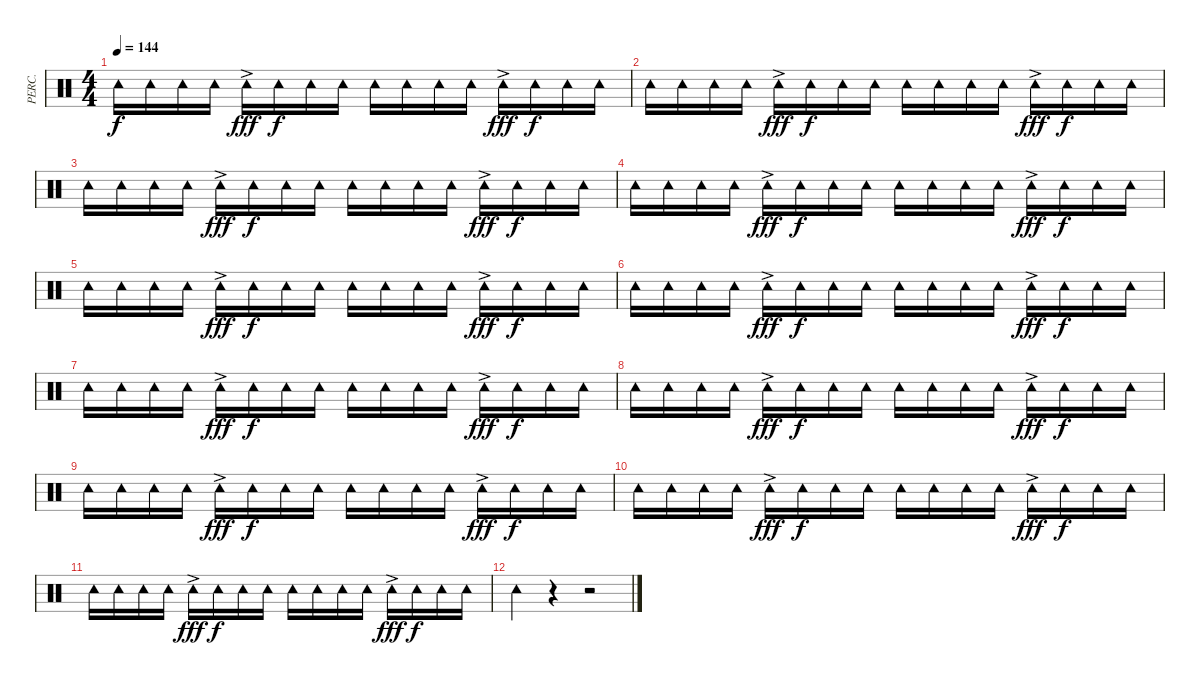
\track ("PERC." "PERC.") {instrument percussion}
\staff {score}
\articulation defaults
\ts (4 4)
\tempo 144
\clef neutral
\ks c "Tambourine (hit)".16{dy f} "Tambourine (hit)".16 "Tambourine (hit)".16 "Tambourine (hit)".16 "Tambourine (hit)"{ac}.16{dy fff} "Tambourine (hit)".16{dy f} "Tambourine (hit)".16 "Tambourine (hit)".16 "Tambourine (hit)".16 "Tambourine (hit)".16 "Tambourine (hit)".16 "Tambourine (hit)".16 "Tambourine (hit)"{ac}.16{dy fff} "Tambourine (hit)".16{dy f} "Tambourine (hit)".16 "Tambourine (hit)".16
|
"Tambourine (hit)".16 "Tambourine (hit)".16 "Tambourine (hit)".16 "Tambourine (hit)".16 "Tambourine (hit)"{ac}.16{dy fff} "Tambourine (hit)".16{dy f} "Tambourine (hit)".16 "Tambourine (hit)".16 "Tambourine (hit)".16 "Tambourine (hit)".16 "Tambourine (hit)".16 "Tambourine (hit)".16 "Tambourine (hit)"{ac}.16{dy fff} "Tambourine (hit)".16{dy f} "Tambourine (hit)".16 "Tambourine (hit)".16 |
"Tambourine (hit)".16 "Tambourine (hit)".16 "Tambourine (hit)".16 "Tambourine (hit)".16 "Tambourine (hit)"{ac}.16{dy fff} "Tambourine (hit)".16{dy f} "Tambourine (hit)".16 "Tambourine (hit)".16 "Tambourine (hit)".16 "Tambourine (hit)".16 "Tambourine (hit)".16 "Tambourine (hit)".16 "Tambourine (hit)"{ac}.16{dy fff} "Tambourine (hit)".16{dy f} "Tambourine (hit)".16 "Tambourine (hit)".16 |
"Tambourine (hit)".16 "Tambourine (hit)".16 "Tambourine (hit)".16 "Tambourine (hit)".16 "Tambourine (hit)"{ac}.16{dy fff} "Tambourine (hit)".16{dy f} "Tambourine (hit)".16 "Tambourine (hit)".16 "Tambourine (hit)".16 "Tambourine (hit)".16 "Tambourine (hit)".16 "Tambourine (hit)".16 "Tambourine (hit)"{ac}.16{dy fff} "Tambourine (hit)".16{dy f} "Tambourine (hit)".16 "Tambourine (hit)".16 |
"Tambourine (hit)".16 "Tambourine (hit)".16 "Tambourine (hit)".16 "Tambourine (hit)".16 "Tambourine (hit)"{ac}.16{dy fff} "Tambourine (hit)".16{dy f} "Tambourine (hit)".16 "Tambourine (hit)".16 "Tambourine (hit)".16 "Tambourine (hit)".16 "Tambourine (hit)".16 "Tambourine (hit)".16 "Tambourine (hit)"{ac}.16{dy fff} "Tambourine (hit)".16{dy f} "Tambourine (hit)".16 "Tambourine (hit)".16 |
"Tambourine (hit)".16 "Tambourine (hit)".16 "Tambourine (hit)".16 "Tambourine (hit)".16 "Tambourine (hit)"{ac}.16{dy fff} "Tambourine (hit)".16{dy f} "Tambourine (hit)".16 "Tambourine (hit)".16 "Tambourine (hit)".16 "Tambourine (hit)".16 "Tambourine (hit)".16 "Tambourine (hit)".16 "Tambourine (hit)"{ac}.16{dy fff} "Tambourine (hit)".16{dy f} "Tambourine (hit)".16 "Tambourine (hit)".16 |
"Tambourine (hit)".16 "Tambourine (hit)".16 "Tambourine (hit)".16 "Tambourine (hit)".16 "Tambourine (hit)"{ac}.16{dy fff} "Tambourine (hit)".16{dy f} "Tambourine (hit)".16 "Tambourine (hit)".16 "Tambourine (hit)".16 "Tambourine (hit)".16 "Tambourine (hit)".16 "Tambourine (hit)".16 "Tambourine (hit)"{ac}.16{dy fff} "Tambourine (hit)".16{dy f} "Tambourine (hit)".16 "Tambourine (hit)".16 |
"Tambourine (hit)".16 "Tambourine (hit)".16 "Tambourine (hit)".16 "Tambourine (hit)".16 "Tambourine (hit)"{ac}.16{dy fff} "Tambourine (hit)".16{dy f} "Tambourine (hit)".16 "Tambourine (hit)".16 "Tambourine (hit)".16 "Tambourine (hit)".16 "Tambourine (hit)".16 "Tambourine (hit)".16 "Tambourine (hit)"{ac}.16{dy fff} "Tambourine (hit)".16{dy f} "Tambourine (hit)".16 "Tambourine (hit)".16 |
"Tambourine (hit)".16 "Tambourine (hit)".16 "Tambourine (hit)".16 "Tambourine (hit)".16 "Tambourine (hit)"{ac}.16{dy fff} "Tambourine (hit)".16{dy f} "Tambourine (hit)".16 "Tambourine (hit)".16 "Tambourine (hit)".16 "Tambourine (hit)".16 "Tambourine (hit)".16 "Tambourine (hit)".16 "Tambourine (hit)"{ac}.16{dy fff} "Tambourine (hit)".16{dy f} "Tambourine (hit)".16 "Tambourine (hit)".16 |
"Tambourine (hit)".16 "Tambourine (hit)".16 "Tambourine (hit)".16 "Tambourine (hit)".16 "Tambourine (hit)"{ac}.16{dy fff} "Tambourine (hit)".16{dy f} "Tambourine (hit)".16 "Tambourine (hit)".16 "Tambourine (hit)".16 "Tambourine (hit)".16 "Tambourine (hit)".16 "Tambourine (hit)".16 "Tambourine (hit)"{ac}.16{dy fff} "Tambourine (hit)".16{dy f} "Tambourine (hit)".16 "Tambourine (hit)".16 |
"Tambourine (hit)".16 "Tambourine (hit)".16 "Tambourine (hit)".16 "Tambourine (hit)".16 "Tambourine (hit)"{ac}.16{dy fff} "Tambourine (hit)".16{dy f} "Tambourine (hit)".16 "Tambourine (hit)".16 "Tambourine (hit)".16 "Tambourine (hit)".16 "Tambourine (hit)".16 "Tambourine (hit)".16 "Tambourine (hit)"{ac}.16{dy fff} "Tambourine (hit)".16{dy f} "Tambourine (hit)".16 "Tambourine (hit)".16 |
"Tambourine (hit)".4 r.4 r.2
